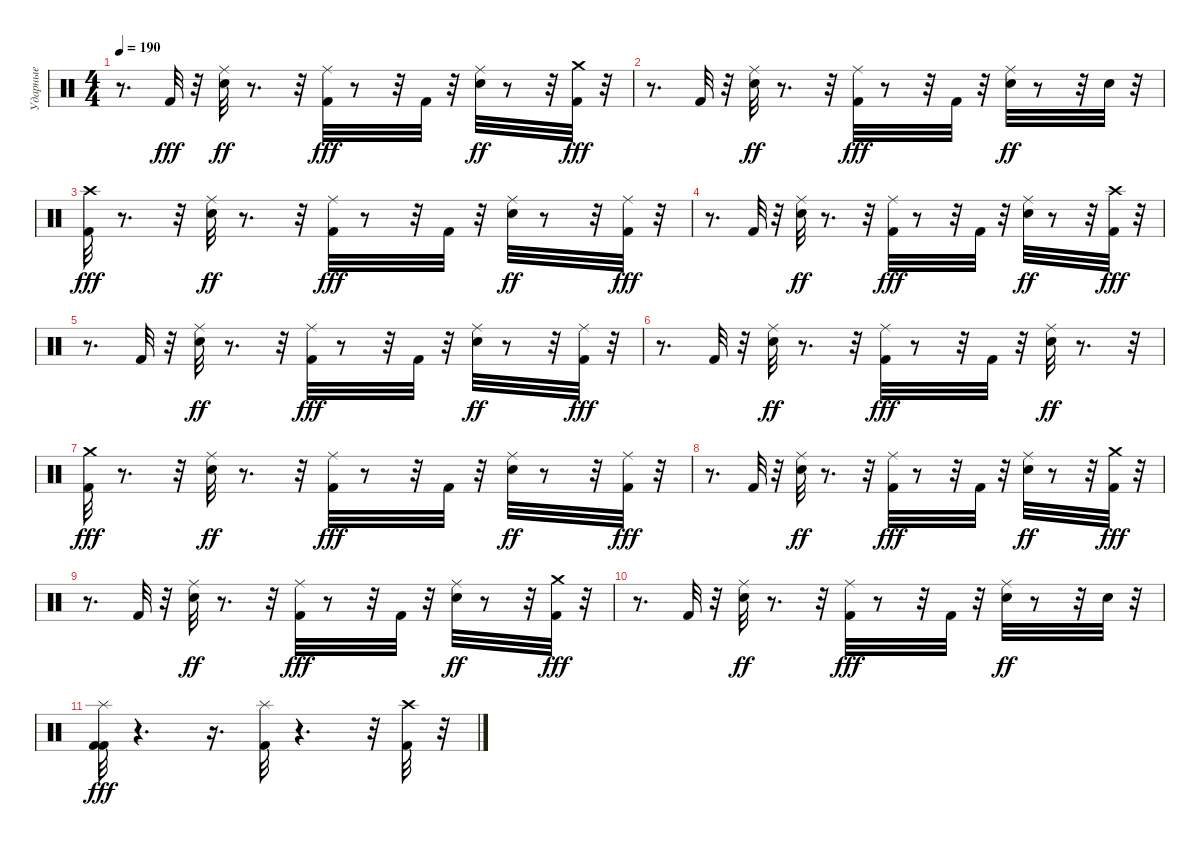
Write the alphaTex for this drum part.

\track ("Ударные" "Ударные") {instrument percussion}
\staff {score}
\articulation defaults
\ts (4 4)
\tempo 190
\clef neutral
\ks c
r.8{d dy fff} "Kick (hit) 2".32 r.32 ("Ride (middle)" "Snare (hit) 2").32{dy ff} r.8{d} r.32 ("Kick (hit) 2" "Ride (middle)").32{dy fff} r.8 r.32 "Kick (hit) 2".32 r.32 ("Snare (hit) 2" "Ride (middle)").32{dy ff} r.8 r.32 ("Crash medium (hit)" "Kick (hit) 2").32{dy fff} r.32 |
r.8{d} "Kick (hit) 2".32 r.32 ("Ride (middle)" "Snare (hit) 2").32{dy ff} r.8{d} r.32 ("Ride (middle)" "Kick (hit) 2").32{dy fff} r.8 r.32 "Kick (hit) 2".32 r.32 ("Ride (middle)" "Snare (hit) 2").32{dy ff} r.8 r.32 "Snare (hit) 2".32 r.32 |
("Crash high (hit)" "Kick (hit) 2").32{dy fff} r.8{d} r.32 ("Ride (middle)" "Snare (hit) 2").32{dy ff} r.8{d} r.32 ("Ride (middle)" "Kick (hit) 2").32{dy fff} r.8 r.32 "Kick (hit) 2".32 r.32 ("Ride (middle)" "Snare (hit) 2").32{dy ff} r.8 r.32 ("Ride (middle)" "Kick (hit) 2").32{dy fff} r.32 |
r.8{d} "Kick (hit) 2".32 r.32 ("Ride (middle)" "Snare (hit) 2").32{dy ff} r.8{d} r.32 ("Kick (hit) 2" "Ride (middle)").32{dy fff} r.8 r.32 "Kick (hit) 2".32 r.32 ("Snare (hit) 2" "Ride (middle)").32{dy ff} r.8 r.32 ("Crash high (hit)" "Kick (hit) 2").32{dy fff} r.32 |
r.8{d} "Kick (hit) 2".32 r.32 ("Ride (middle)" "Snare (hit) 2").32{dy ff} r.8{d} r.32 ("Kick (hit) 2" "Ride (middle)").32{dy fff} r.8 r.32 "Kick (hit) 2".32 r.32 ("Snare (hit) 2" "Ride (middle)").32{dy ff} r.8 r.32 ("Ride (middle)" "Kick (hit) 2").32{dy fff} r.32 |
r.8{d} "Kick (hit) 2".32 r.32 ("Ride (middle)" "Snare (hit) 2").32{dy ff} r.8{d} r.32 ("Ride (middle)" "Kick (hit) 2").32{dy fff} r.8 r.32 "Kick (hit) 2".32 r.32 ("Ride (middle)" "Snare (hit) 2").32{dy ff} r.8{d} r.32 |
("Crash medium (hit)" "Kick (hit) 2").32{dy fff} r.8{d} r.32 ("Ride (middle)" "Snare (hit) 2").32{dy ff} r.8{d} r.32 ("Ride (middle)" "Kick (hit) 2").32{dy fff} r.8 r.32 "Kick (hit) 2".32 r.32 ("Ride (middle)" "Snare (hit) 2").32{dy ff} r.8 r.32 ("Ride (middle)" "Kick (hit) 2").32{dy fff} r.32 |
r.8{d} "Kick (hit) 2".32 r.32 ("Ride (middle)" "Snare (hit) 2").32{dy ff} r.8{d} r.32 ("Kick (hit) 2" "Ride (middle)").32{dy fff} r.8 r.32 "Kick (hit) 2".32 r.32 ("Snare (hit) 2" "Ride (middle)").32{dy ff} r.8 r.32 ("Kick (hit) 2" "Crash medium (hit)").32{dy fff} r.32 |
r.8{d} "Kick (hit) 2".32 r.32 ("Ride (middle)" "Snare (hit) 2").32{dy ff} r.8{d} r.32 ("Kick (hit) 2" "Ride (middle)").32{dy fff} r.8 r.32 "Kick (hit) 2".32 r.32 ("Snare (hit) 2" "Ride (middle)").32{dy ff} r.8 r.32 ("Crash medium (hit)" "Kick (hit) 2").32{dy fff} r.32 |
r.8{d} "Kick (hit) 2".32 r.32 ("Ride (middle)" "Snare (hit) 2").32{dy ff} r.8{d} r.32 ("Ride (middle)" "Kick (hit) 2").32{dy fff} r.8 r.32 "Kick (hit) 2".32 r.32 ("Ride (middle)" "Snare (hit) 2").32{dy ff} r.8 r.32 "Snare (hit) 2".32 r.32 |
("Kick (hit) 2" "Splash (hit)" "Kick (hit) 2").32{dy fff} r.4{d} r.16{d} ("Splash (hit)" "Kick (hit) 2").32 r.4{d} r.32 ("Kick (hit) 2" "Crash high (hit)").32 r.32
